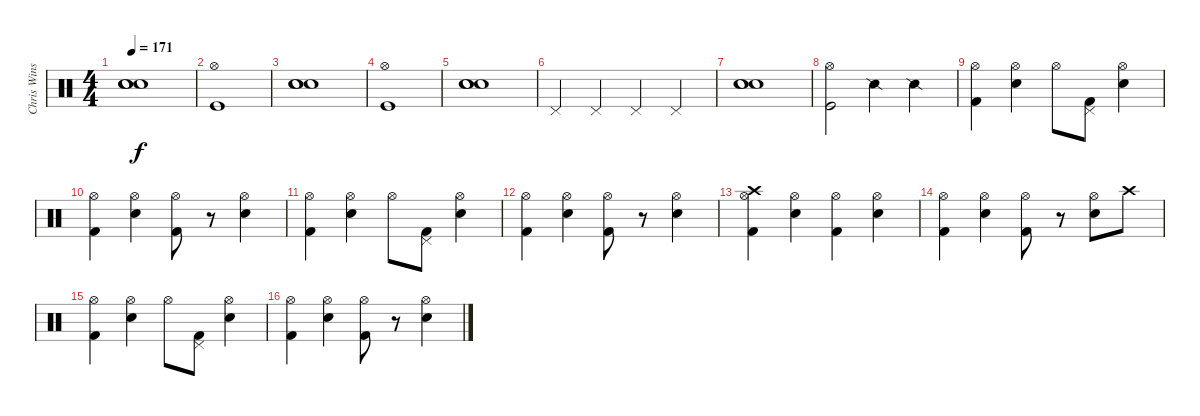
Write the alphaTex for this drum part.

\track ("Chris Winship (Drums)" "Chris Wins") {instrument percussion}
\staff {score}
\articulation defaults
\ts (4 4)
\tempo 171
\clef neutral
\ks c
("Snare (hit) 2" "Snare (hit) 2" "Snare (hit) 2").1{bd 480 dy f} |
("Hi-Hat (open)" "Kick (hit)").1 |
("Snare (hit) 2" "Snare (hit) 2" "Snare (hit) 2").1{bd 480} |
("Hi-Hat (open)" "Kick (hit)").1 |
("Snare (hit) 2" "Snare (hit) 2" "Snare (hit) 2").1{bd 480} |
"Pedal Hi-Hat (hit)".4 "Pedal Hi-Hat (hit)".4 "Pedal Hi-Hat (hit)".4 "Pedal Hi-Hat (hit)".4 |
("Snare (hit) 2" "Snare (hit) 2" "Snare (hit) 2").1{bd 480} |
("Hi-Hat (open)" "Kick (hit)").2 "Snare (side stick) 2".4 "Snare (side stick) 2".4 |
("Hi-Hat (open)" "Kick (hit) 2").4 ("Hi-Hat (open)" "Snare (hit) 2").4 "Hi-Hat (open)".8 ("Pedal Hi-Hat (hit)" "Kick (hit) 2").8 ("Hi-Hat (open)" "Snare (hit) 2").4 |
("Hi-Hat (open)" "Kick (hit) 2").4 ("Hi-Hat (open)" "Snare (hit) 2").4 ("Hi-Hat (open)" "Kick (hit) 2").8 r.8 ("Hi-Hat (open)" "Snare (hit) 2").4 |
("Hi-Hat (open)" "Kick (hit) 2").4 ("Hi-Hat (open)" "Snare (hit) 2").4 "Hi-Hat (open)".8 ("Pedal Hi-Hat (hit)" "Kick (hit) 2").8 ("Hi-Hat (open)" "Snare (hit) 2").4 |
("Hi-Hat (open)" "Kick (hit) 2").4 ("Hi-Hat (open)" "Snare (hit) 2").4 ("Hi-Hat (open)" "Kick (hit) 2").8 r.8 ("Hi-Hat (open)" "Snare (hit) 2").4 |
("Crash high (hit)" "Hi-Hat (open)" "Kick (hit) 2").4 ("Hi-Hat (open)" "Snare (hit) 2").4 ("Hi-Hat (open)" "Kick (hit) 2").4 ("Hi-Hat (open)" "Snare (hit) 2").4 |
("Hi-Hat (open)" "Kick (hit) 2").4 ("Hi-Hat (open)" "Snare (hit) 2").4 ("Hi-Hat (open)" "Kick (hit) 2").8 r.8 ("Hi-Hat (open)" "Snare (hit) 2").8 "Crash high (hit)".8 |
("Hi-Hat (open)" "Kick (hit) 2").4 ("Hi-Hat (open)" "Snare (hit) 2").4 "Hi-Hat (open)".8 ("Pedal Hi-Hat (hit)" "Kick (hit) 2").8 ("Hi-Hat (open)" "Snare (hit) 2").4 |
("Hi-Hat (open)" "Kick (hit) 2").4 ("Hi-Hat (open)" "Snare (hit) 2").4 ("Hi-Hat (open)" "Kick (hit) 2").8 r.8 ("Hi-Hat (open)" "Snare (hit) 2").4
